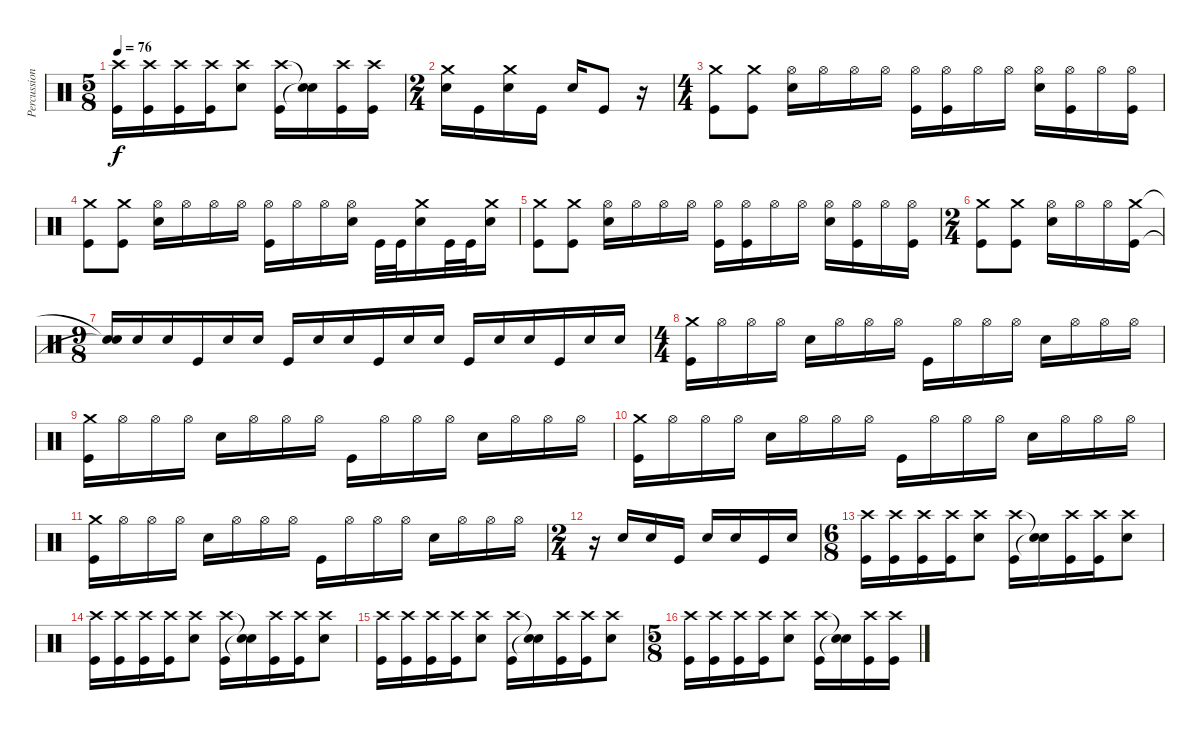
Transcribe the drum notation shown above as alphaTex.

\track ("Percussion" "Percussion") {instrument percussion}
\staff {score}
\articulation defaults
\ts (5 8)
\tempo 76
\clef neutral
\ks c
("Crash high (hit)" "Kick (hit)").16{dy f} ("Crash high (hit)" "Kick (hit)").16 ("Crash high (hit)" "Kick (hit)").16 ("Crash high (hit)" "Kick (hit)").16 ("Crash high (hit)" "Snare (hit) 2").8 ("Crash high (hit)" "Kick (hit)").16 ("Snare (hit)"{t} "Snare (hit)"{t}).16 ("Crash high (hit)" "Kick (hit)").16 ("Crash high (hit)" "Kick (hit)").16 |
\ts (2 4)
("Crash medium (hit)" "Snare (hit) 2").16 "Kick (hit)".16 ("Crash medium (hit)" "Snare (hit) 2").16 "Kick (hit)".16 "Snare (hit) 2".16 "Kick (hit)".8 r.16 |
\ts (4 4)
("Crash medium (hit)" "Kick (hit)").8 ("Crash medium (hit)" "Kick (hit)").8 ("Hi-Hat (open)" "Snare (hit) 2").16 "Hi-Hat (open)".16 "Hi-Hat (open)".16 "Hi-Hat (open)".16 ("Hi-Hat (open)" "Kick (hit)").16 ("Hi-Hat (open)" "Kick (hit)").16 "Hi-Hat (open)".16 "Hi-Hat (open)".16 ("Hi-Hat (open)" "Snare (hit) 2").16 ("Hi-Hat (open)" "Kick (hit)").16 "Hi-Hat (open)".16 ("Hi-Hat (open)" "Kick (hit)").16 |
("Crash medium (hit)" "Kick (hit)").8 ("Crash medium (hit)" "Kick (hit)").8 ("Hi-Hat (open)" "Snare (hit) 2").16 "Hi-Hat (open)".16 "Hi-Hat (open)".16 "Hi-Hat (open)".16 ("Hi-Hat (open)" "Kick (hit)").16 "Hi-Hat (open)".16 "Hi-Hat (open)".16 ("Hi-Hat (open)" "Snare (hit) 2").16 "Kick (hit)".32 "Kick (hit)".32 ("Crash medium (hit)" "Snare (hit) 2").16 "Kick (hit)".32 "Kick (hit)".32 ("Crash medium (hit)" "Snare (hit) 2").16 |
("Crash medium (hit)" "Kick (hit)").8 ("Crash medium (hit)" "Kick (hit)").8 ("Hi-Hat (open)" "Snare (hit) 2").16 "Hi-Hat (open)".16 "Hi-Hat (open)".16 "Hi-Hat (open)".16 ("Hi-Hat (open)" "Kick (hit)").16 ("Hi-Hat (open)" "Kick (hit)").16 "Hi-Hat (open)".16 "Hi-Hat (open)".16 ("Hi-Hat (open)" "Snare (hit) 2").16 ("Hi-Hat (open)" "Kick (hit)").16 "Hi-Hat (open)".16 ("Hi-Hat (open)" "Kick (hit)").16 |
\ts (2 4)
("Crash medium (hit)" "Kick (hit)").8 ("Crash medium (hit)" "Kick (hit)").8 ("Hi-Hat (open)" "Snare (hit) 2").16 "Hi-Hat (open)".16 "Hi-Hat (open)".16 ("Crash medium (hit)" "Kick (hit)").16 |
\ts (9 8)
("Snare (hit)"{t} "Snare (hit)"{t}).16 "Snare (hit) 2".16 "Snare (hit) 2".16 "Kick (hit)".16 "Snare (hit) 2".16 "Snare (hit) 2".16 "Kick (hit)".16 "Snare (hit) 2".16 "Snare (hit) 2".16 "Kick (hit)".16 "Snare (hit) 2".16 "Snare (hit) 2".16 "Kick (hit)".16 "Snare (hit) 2".16 "Snare (hit) 2".16 "Kick (hit)".16 "Snare (hit) 2".16 "Snare (hit) 2".16 |
\ts (4 4)
("Crash medium (hit)" "Kick (hit)").16 "Hi-Hat (open)".16 "Hi-Hat (open)".16 "Hi-Hat (open)".16 "Snare (hit) 2".16 "Hi-Hat (open)".16 "Hi-Hat (open)".16 "Hi-Hat (open)".16 "Kick (hit)".16 "Hi-Hat (open)".16 "Hi-Hat (open)".16 "Hi-Hat (open)".16 "Snare (hit) 2".16 "Hi-Hat (open)".16 "Hi-Hat (open)".16 "Hi-Hat (open)".16 |
("Crash medium (hit)" "Kick (hit)").16 "Hi-Hat (open)".16 "Hi-Hat (open)".16 "Hi-Hat (open)".16 "Snare (hit) 2".16 "Hi-Hat (open)".16 "Hi-Hat (open)".16 "Hi-Hat (open)".16 "Kick (hit)".16 "Hi-Hat (open)".16 "Hi-Hat (open)".16 "Hi-Hat (open)".16 "Snare (hit) 2".16 "Hi-Hat (open)".16 "Hi-Hat (open)".16 "Hi-Hat (open)".16 |
("Crash medium (hit)" "Kick (hit)").16 "Hi-Hat (open)".16 "Hi-Hat (open)".16 "Hi-Hat (open)".16 "Snare (hit) 2".16 "Hi-Hat (open)".16 "Hi-Hat (open)".16 "Hi-Hat (open)".16 "Kick (hit)".16 "Hi-Hat (open)".16 "Hi-Hat (open)".16 "Hi-Hat (open)".16 "Snare (hit) 2".16 "Hi-Hat (open)".16 "Hi-Hat (open)".16 "Hi-Hat (open)".16 |
("Crash medium (hit)" "Kick (hit)").16 "Hi-Hat (open)".16 "Hi-Hat (open)".16 "Hi-Hat (open)".16 "Snare (hit) 2".16 "Hi-Hat (open)".16 "Hi-Hat (open)".16 "Hi-Hat (open)".16 "Kick (hit)".16 "Hi-Hat (open)".16 "Hi-Hat (open)".16 "Hi-Hat (open)".16 "Snare (hit) 2".16 "Hi-Hat (open)".16 "Hi-Hat (open)".16 "Hi-Hat (open)".16 |
\ts (2 4)
r.16 "Snare (hit) 2".16 "Snare (hit) 2".16 "Kick (hit)".16 "Snare (hit) 2".16 "Snare (hit) 2".16 "Kick (hit)".16 "Snare (hit) 2".16 |
\ts (6 8)
("Crash high (hit)" "Kick (hit)").16 ("Crash high (hit)" "Kick (hit)").16 ("Crash high (hit)" "Kick (hit)").16 ("Crash high (hit)" "Kick (hit)").16 ("Crash high (hit)" "Snare (hit) 2").8 ("Crash high (hit)" "Kick (hit)").16 ("Snare (hit)"{t} "Snare (hit)"{t}).16 ("Crash high (hit)" "Kick (hit)").16 ("Crash high (hit)" "Kick (hit)").16 ("Crash high (hit)" "Snare (hit) 2").8 |
("Crash high (hit)" "Kick (hit)").16 ("Crash high (hit)" "Kick (hit)").16 ("Crash high (hit)" "Kick (hit)").16 ("Crash high (hit)" "Kick (hit)").16 ("Crash high (hit)" "Snare (hit) 2").8 ("Crash high (hit)" "Kick (hit)").16 ("Snare (hit)"{t} "Snare (hit)"{t}).16 ("Crash high (hit)" "Kick (hit)").16 ("Crash high (hit)" "Kick (hit)").16 ("Crash high (hit)" "Snare (hit) 2").8 |
("Crash high (hit)" "Kick (hit)").16 ("Crash high (hit)" "Kick (hit)").16 ("Crash high (hit)" "Kick (hit)").16 ("Crash high (hit)" "Kick (hit)").16 ("Crash high (hit)" "Snare (hit) 2").8 ("Crash high (hit)" "Kick (hit)").16 ("Snare (hit)"{t} "Snare (hit)"{t}).16 ("Crash high (hit)" "Kick (hit)").16 ("Crash high (hit)" "Kick (hit)").16 ("Crash high (hit)" "Snare (hit) 2").8 |
\ts (5 8)
("Crash high (hit)" "Kick (hit)").16 ("Crash high (hit)" "Kick (hit)").16 ("Crash high (hit)" "Kick (hit)").16 ("Crash high (hit)" "Kick (hit)").16 ("Crash high (hit)" "Snare (hit) 2").8 ("Crash high (hit)" "Kick (hit)").16 ("Snare (hit)"{t} "Snare (hit)"{t}).16 ("Crash high (hit)" "Kick (hit)").16 ("Crash high (hit)" "Kick (hit)").16
